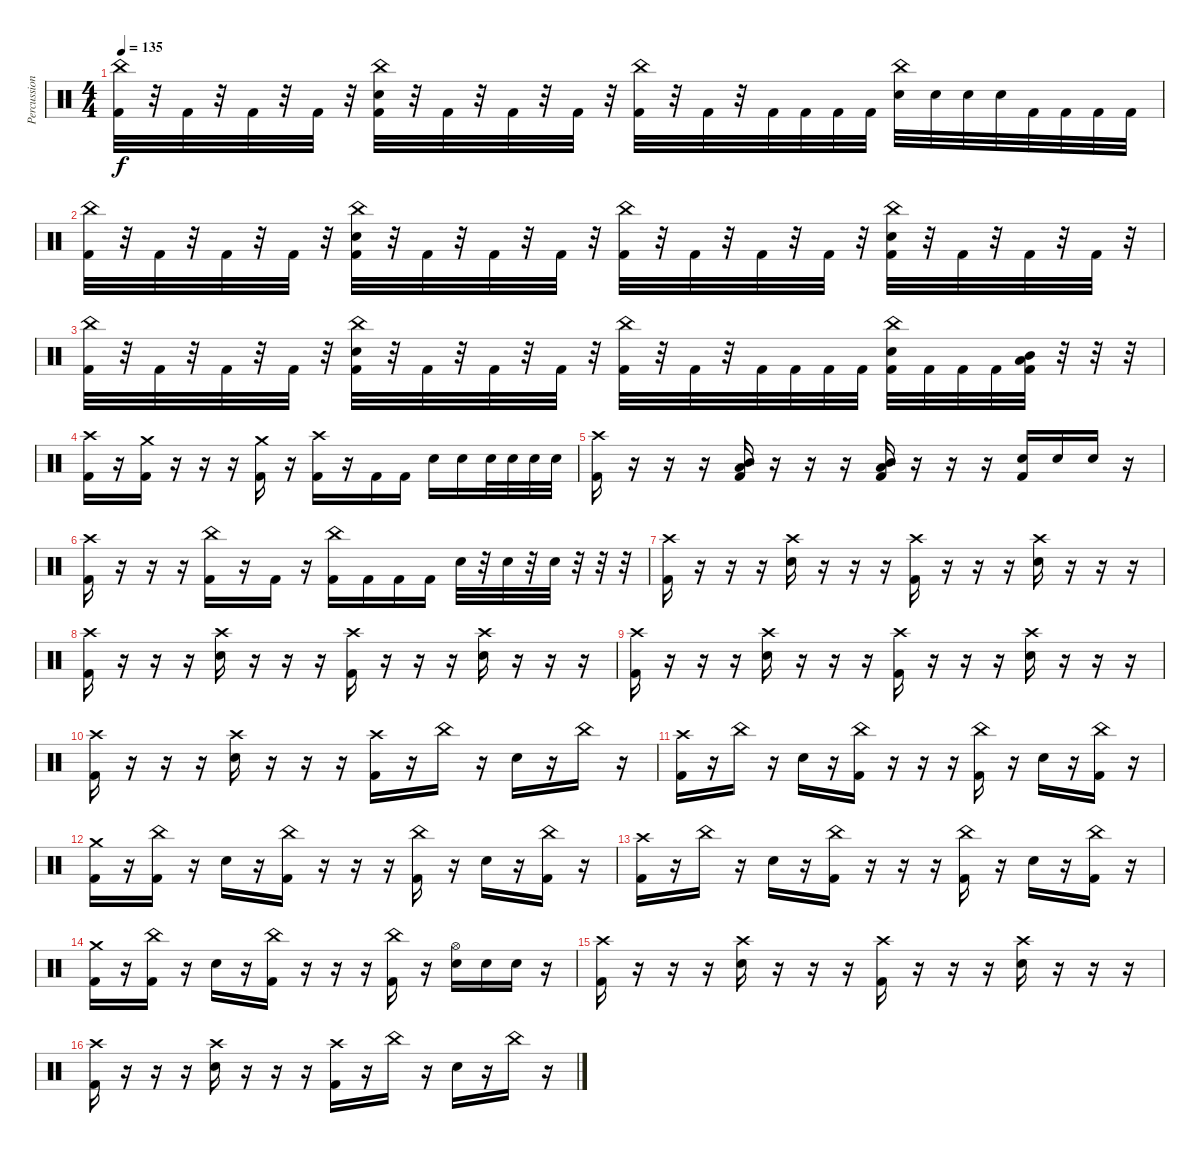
\track ("Percussion" "Percussion") {instrument percussion}
\staff {score}
\articulation defaults
\ts (4 4)
\tempo 135
\clef neutral
\ks c
("China (hit)" "Kick (hit) 2").32{dy f} r.32 "Kick (hit) 2".32 r.32 "Kick (hit) 2".32 r.32 "Kick (hit) 2".32 r.32 ("China (hit)" "Electric Snare (hit)" "Kick (hit) 2").32 r.32 "Kick (hit) 2".32 r.32 "Kick (hit) 2".32 r.32 "Kick (hit) 2".32 r.32 ("China (hit)" "Kick (hit) 2").32 r.32 "Kick (hit) 2".32 r.32 "Kick (hit) 2".32 "Kick (hit) 2".32 "Kick (hit) 2".32 "Kick (hit) 2".32 ("China (hit)" "Electric Snare (hit)").32 "Electric Snare (hit)".32 "Electric Snare (hit)".32 "Electric Snare (hit)".32 "Kick (hit) 2".32 "Kick (hit) 2".32 "Kick (hit) 2".32 "Kick (hit) 2".32 |
("China (hit)" "Kick (hit) 2").32 r.32 "Kick (hit) 2".32 r.32 "Kick (hit) 2".32 r.32 "Kick (hit) 2".32 r.32 ("China (hit)" "Electric Snare (hit)" "Kick (hit) 2").32 r.32 "Kick (hit) 2".32 r.32 "Kick (hit) 2".32 r.32 "Kick (hit) 2".32 r.32 ("China (hit)" "Kick (hit) 2").32 r.32 "Kick (hit) 2".32 r.32 "Kick (hit) 2".32 r.32 "Kick (hit) 2".32 r.32 ("China (hit)" "Electric Snare (hit)" "Kick (hit) 2").32 r.32 "Kick (hit) 2".32 r.32 "Kick (hit) 2".32 r.32 "Kick (hit) 2".32 r.32 |
("China (hit)" "Kick (hit) 2").32 r.32 "Kick (hit) 2".32 r.32 "Kick (hit) 2".32 r.32 "Kick (hit) 2".32 r.32 ("China (hit)" "Electric Snare (hit)" "Kick (hit) 2").32 r.32 "Kick (hit) 2".32 r.32 "Kick (hit) 2".32 r.32 "Kick (hit) 2".32 r.32 ("China (hit)" "Kick (hit) 2").32 r.32 "Kick (hit) 2".32 r.32 "Kick (hit) 2".32 "Kick (hit) 2".32 "Kick (hit) 2".32 "Kick (hit) 2".32 ("China (hit)" "Electric Snare (hit)" "Kick (hit) 2").32 "Kick (hit) 2".32 "Kick (hit) 2".32 "Kick (hit) 2".32 ("Mid Tom (hit)" "Low Tom (hit)" "Kick (hit) 2").32 r.32 r.32 r.32 |
("Crash high (hit)" "Kick (hit) 2").16 r.16 ("Crash medium (hit)" "Kick (hit) 2").16 r.16 r.16 r.16 ("Crash medium (hit)" "Kick (hit) 2").16 r.16 ("Crash high (hit)" "Kick (hit) 2").16 r.16 "Kick (hit) 2".16 "Kick (hit) 2".16 "Electric Snare (hit)".16 "Electric Snare (hit)".16 "Electric Snare (hit)".32 "Electric Snare (hit)".32 "Electric Snare (hit)".32 "Electric Snare (hit)".32 |
("Crash high (hit)" "Kick (hit) 2").16 r.16 r.16 r.16 ("Low Tom (hit)" "Mid Tom (hit)" "Kick (hit) 2").16 r.16 r.16 r.16 ("Low Tom (hit)" "Mid Tom (hit)" "Kick (hit) 2").16 r.16 r.16 r.16 ("Electric Snare (hit)" "Kick (hit) 2").16 "Electric Snare (hit)".16 "Electric Snare (hit)".16 r.16 |
("Crash high (hit)" "Kick (hit) 2").16 r.16 r.16 r.16 ("China (hit)" "Kick (hit) 2").16 r.16 "Kick (hit) 2".16 r.16 ("China (hit)" "Kick (hit) 2").16 "Kick (hit) 2".16 "Kick (hit) 2".16 "Kick (hit) 2".16 "Electric Snare (hit)".32 r.32 "Electric Snare (hit)".32 r.32 "Electric Snare (hit)".32 r.32 r.32 r.32 |
("Crash high (hit)" "Kick (hit) 2").16 r.16 r.16 r.16 ("Crash high (hit)" "Electric Snare (hit)").16 r.16 r.16 r.16 ("Crash high (hit)" "Kick (hit) 2").16 r.16 r.16 r.16 ("Crash high (hit)" "Electric Snare (hit)").16 r.16 r.16 r.16 |
("Crash high (hit)" "Kick (hit) 2").16 r.16 r.16 r.16 ("Crash high (hit)" "Electric Snare (hit)").16 r.16 r.16 r.16 ("Crash high (hit)" "Kick (hit) 2").16 r.16 r.16 r.16 ("Crash high (hit)" "Electric Snare (hit)").16 r.16 r.16 r.16 |
("Crash high (hit)" "Kick (hit) 2").16 r.16 r.16 r.16 ("Crash high (hit)" "Electric Snare (hit)").16 r.16 r.16 r.16 ("Crash high (hit)" "Kick (hit) 2").16 r.16 r.16 r.16 ("Crash high (hit)" "Electric Snare (hit)").16 r.16 r.16 r.16 |
("Crash high (hit)" "Kick (hit) 2").16 r.16 r.16 r.16 ("Crash high (hit)" "Electric Snare (hit)").16 r.16 r.16 r.16 ("Crash high (hit)" "Kick (hit) 2").16 r.16 "China (hit)".16 r.16 "Electric Snare (hit)".16 r.16 "China (hit)".16 r.16 |
("Crash high (hit)" "Kick (hit) 2").16 r.16 "China (hit)".16 r.16 "Electric Snare (hit)".16 r.16 ("China (hit)" "Kick (hit) 2").16 r.16 r.16 r.16 ("China (hit)" "Kick (hit) 2").16 r.16 "Electric Snare (hit)".16 r.16 ("China (hit)" "Kick (hit) 2").16 r.16 |
("Crash medium (hit)" "Kick (hit) 2").16 r.16 ("China (hit)" "Kick (hit) 2").16 r.16 "Electric Snare (hit)".16 r.16 ("China (hit)" "Kick (hit) 2").16 r.16 r.16 r.16 ("China (hit)" "Kick (hit) 2").16 r.16 "Electric Snare (hit)".16 r.16 ("China (hit)" "Kick (hit) 2").16 r.16 |
("Crash high (hit)" "Kick (hit) 2").16 r.16 "China (hit)".16 r.16 "Electric Snare (hit)".16 r.16 ("China (hit)" "Kick (hit) 2").16 r.16 r.16 r.16 ("China (hit)" "Kick (hit) 2").16 r.16 "Electric Snare (hit)".16 r.16 ("China (hit)" "Kick (hit) 2").16 r.16 |
("Crash medium (hit)" "Kick (hit) 2").16 r.16 ("China (hit)" "Kick (hit) 2").16 r.16 "Electric Snare (hit)".16 r.16 ("China (hit)" "Kick (hit) 2").16 r.16 r.16 r.16 ("China (hit)" "Kick (hit) 2").16 r.16 ("Hi-Hat (open)" "Electric Snare (hit)").16 "Electric Snare (hit)".16 "Electric Snare (hit)".16 r.16 |
("Crash high (hit)" "Kick (hit) 2").16{volume 9} r.16 r.16 r.16 ("Crash high (hit)" "Electric Snare (hit)").16 r.16 r.16 r.16 ("Crash high (hit)" "Kick (hit) 2").16 r.16 r.16 r.16 ("Crash high (hit)" "Electric Snare (hit)").16 r.16 r.16 r.16 |
("Crash high (hit)" "Kick (hit) 2").16 r.16 r.16 r.16 ("Crash high (hit)" "Electric Snare (hit)").16 r.16 r.16 r.16 ("Crash high (hit)" "Kick (hit) 2").16 r.16 "China (hit)".16 r.16 "Electric Snare (hit)".16 r.16 "China (hit)".16 r.16
